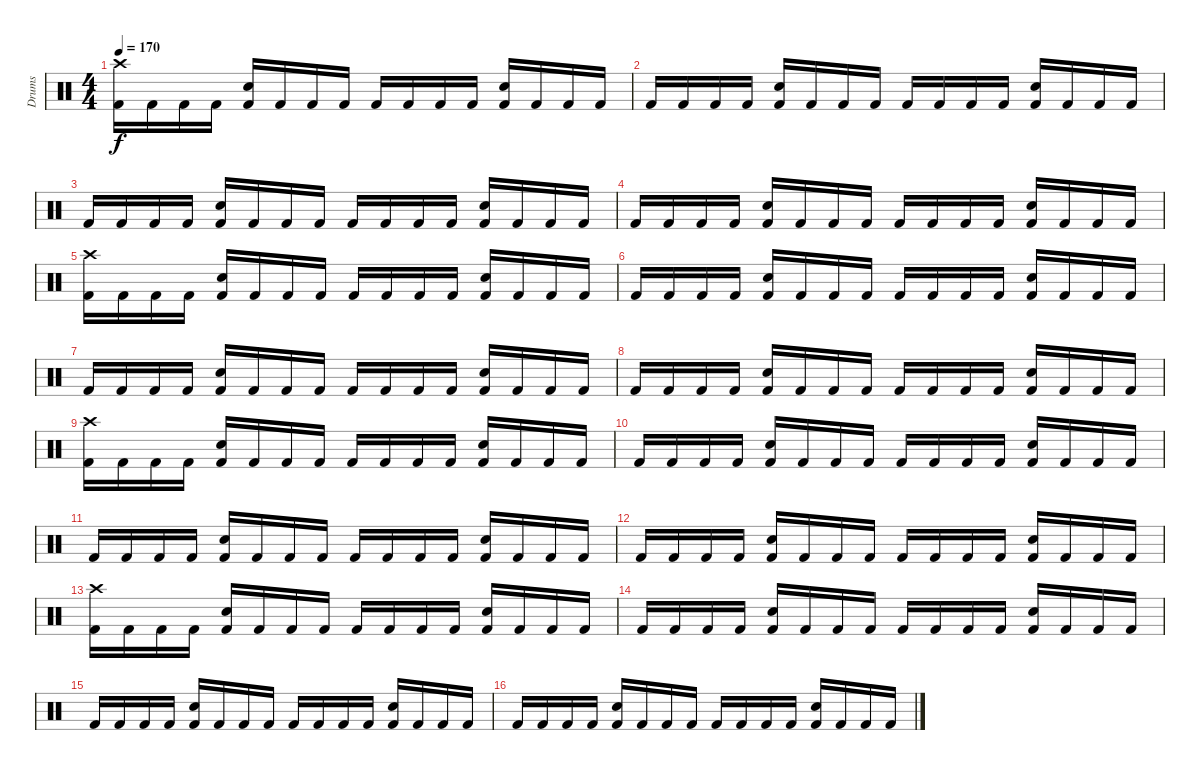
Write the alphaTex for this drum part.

\track ("Drums" "Drums") {instrument percussion}
\staff {score}
\articulation defaults
\ts (4 4)
\tempo 170
\clef neutral
\ks c
("Crash high (hit)" "Kick (hit) 2").16{dy f} "Kick (hit) 2".16 "Kick (hit) 2".16 "Kick (hit) 2".16 ("Snare (hit) 2" "Kick (hit) 2").16 "Kick (hit) 2".16 "Kick (hit) 2".16 "Kick (hit) 2".16 "Kick (hit) 2".16 "Kick (hit) 2".16 "Kick (hit) 2".16 "Kick (hit) 2".16 ("Snare (hit) 2" "Kick (hit) 2").16 "Kick (hit) 2".16 "Kick (hit) 2".16 "Kick (hit) 2".16 |
"Kick (hit) 2".16 "Kick (hit) 2".16 "Kick (hit) 2".16 "Kick (hit) 2".16 ("Snare (hit) 2" "Kick (hit) 2").16 "Kick (hit) 2".16 "Kick (hit) 2".16 "Kick (hit) 2".16 "Kick (hit) 2".16 "Kick (hit) 2".16 "Kick (hit) 2".16 "Kick (hit) 2".16 ("Snare (hit) 2" "Kick (hit) 2").16 "Kick (hit) 2".16 "Kick (hit) 2".16 "Kick (hit) 2".16 |
"Kick (hit) 2".16 "Kick (hit) 2".16 "Kick (hit) 2".16 "Kick (hit) 2".16 ("Snare (hit) 2" "Kick (hit) 2").16 "Kick (hit) 2".16 "Kick (hit) 2".16 "Kick (hit) 2".16 "Kick (hit) 2".16 "Kick (hit) 2".16 "Kick (hit) 2".16 "Kick (hit) 2".16 ("Snare (hit) 2" "Kick (hit) 2").16 "Kick (hit) 2".16 "Kick (hit) 2".16 "Kick (hit) 2".16 |
"Kick (hit) 2".16 "Kick (hit) 2".16 "Kick (hit) 2".16 "Kick (hit) 2".16 ("Snare (hit) 2" "Kick (hit) 2").16 "Kick (hit) 2".16 "Kick (hit) 2".16 "Kick (hit) 2".16 "Kick (hit) 2".16 "Kick (hit) 2".16 "Kick (hit) 2".16 "Kick (hit) 2".16 ("Snare (hit) 2" "Kick (hit) 2").16 "Kick (hit) 2".16 "Kick (hit) 2".16 "Kick (hit) 2".16 |
("Crash high (hit)" "Kick (hit) 2").16 "Kick (hit) 2".16 "Kick (hit) 2".16 "Kick (hit) 2".16 ("Snare (hit) 2" "Kick (hit) 2").16 "Kick (hit) 2".16 "Kick (hit) 2".16 "Kick (hit) 2".16 "Kick (hit) 2".16 "Kick (hit) 2".16 "Kick (hit) 2".16 "Kick (hit) 2".16 ("Snare (hit) 2" "Kick (hit) 2").16 "Kick (hit) 2".16 "Kick (hit) 2".16 "Kick (hit) 2".16 |
"Kick (hit) 2".16 "Kick (hit) 2".16 "Kick (hit) 2".16 "Kick (hit) 2".16 ("Snare (hit) 2" "Kick (hit) 2").16 "Kick (hit) 2".16 "Kick (hit) 2".16 "Kick (hit) 2".16 "Kick (hit) 2".16 "Kick (hit) 2".16 "Kick (hit) 2".16 "Kick (hit) 2".16 ("Snare (hit) 2" "Kick (hit) 2").16 "Kick (hit) 2".16 "Kick (hit) 2".16 "Kick (hit) 2".16 |
"Kick (hit) 2".16 "Kick (hit) 2".16 "Kick (hit) 2".16 "Kick (hit) 2".16 ("Snare (hit) 2" "Kick (hit) 2").16 "Kick (hit) 2".16 "Kick (hit) 2".16 "Kick (hit) 2".16 "Kick (hit) 2".16 "Kick (hit) 2".16 "Kick (hit) 2".16 "Kick (hit) 2".16 ("Snare (hit) 2" "Kick (hit) 2").16 "Kick (hit) 2".16 "Kick (hit) 2".16 "Kick (hit) 2".16 |
"Kick (hit) 2".16 "Kick (hit) 2".16 "Kick (hit) 2".16 "Kick (hit) 2".16 ("Snare (hit) 2" "Kick (hit) 2").16 "Kick (hit) 2".16 "Kick (hit) 2".16 "Kick (hit) 2".16 "Kick (hit) 2".16 "Kick (hit) 2".16 "Kick (hit) 2".16 "Kick (hit) 2".16 ("Snare (hit) 2" "Kick (hit) 2").16 "Kick (hit) 2".16 "Kick (hit) 2".16 "Kick (hit) 2".16 |
("Crash high (hit)" "Kick (hit) 2").16 "Kick (hit) 2".16 "Kick (hit) 2".16 "Kick (hit) 2".16 ("Snare (hit) 2" "Kick (hit) 2").16 "Kick (hit) 2".16 "Kick (hit) 2".16 "Kick (hit) 2".16 "Kick (hit) 2".16 "Kick (hit) 2".16 "Kick (hit) 2".16 "Kick (hit) 2".16 ("Snare (hit) 2" "Kick (hit) 2").16 "Kick (hit) 2".16 "Kick (hit) 2".16 "Kick (hit) 2".16 |
"Kick (hit) 2".16 "Kick (hit) 2".16 "Kick (hit) 2".16 "Kick (hit) 2".16 ("Snare (hit) 2" "Kick (hit) 2").16 "Kick (hit) 2".16 "Kick (hit) 2".16 "Kick (hit) 2".16 "Kick (hit) 2".16 "Kick (hit) 2".16 "Kick (hit) 2".16 "Kick (hit) 2".16 ("Snare (hit) 2" "Kick (hit) 2").16 "Kick (hit) 2".16 "Kick (hit) 2".16 "Kick (hit) 2".16 |
"Kick (hit) 2".16 "Kick (hit) 2".16 "Kick (hit) 2".16 "Kick (hit) 2".16 ("Snare (hit) 2" "Kick (hit) 2").16 "Kick (hit) 2".16 "Kick (hit) 2".16 "Kick (hit) 2".16 "Kick (hit) 2".16 "Kick (hit) 2".16 "Kick (hit) 2".16 "Kick (hit) 2".16 ("Snare (hit) 2" "Kick (hit) 2").16 "Kick (hit) 2".16 "Kick (hit) 2".16 "Kick (hit) 2".16 |
"Kick (hit) 2".16 "Kick (hit) 2".16 "Kick (hit) 2".16 "Kick (hit) 2".16 ("Snare (hit) 2" "Kick (hit) 2").16 "Kick (hit) 2".16 "Kick (hit) 2".16 "Kick (hit) 2".16 "Kick (hit) 2".16 "Kick (hit) 2".16 "Kick (hit) 2".16 "Kick (hit) 2".16 ("Snare (hit) 2" "Kick (hit) 2").16 "Kick (hit) 2".16 "Kick (hit) 2".16 "Kick (hit) 2".16 |
("Crash high (hit)" "Kick (hit) 2").16 "Kick (hit) 2".16 "Kick (hit) 2".16 "Kick (hit) 2".16 ("Snare (hit) 2" "Kick (hit) 2").16 "Kick (hit) 2".16 "Kick (hit) 2".16 "Kick (hit) 2".16 "Kick (hit) 2".16 "Kick (hit) 2".16 "Kick (hit) 2".16 "Kick (hit) 2".16 ("Snare (hit) 2" "Kick (hit) 2").16 "Kick (hit) 2".16 "Kick (hit) 2".16 "Kick (hit) 2".16 |
"Kick (hit) 2".16 "Kick (hit) 2".16 "Kick (hit) 2".16 "Kick (hit) 2".16 ("Snare (hit) 2" "Kick (hit) 2").16 "Kick (hit) 2".16 "Kick (hit) 2".16 "Kick (hit) 2".16 "Kick (hit) 2".16 "Kick (hit) 2".16 "Kick (hit) 2".16 "Kick (hit) 2".16 ("Snare (hit) 2" "Kick (hit) 2").16 "Kick (hit) 2".16 "Kick (hit) 2".16 "Kick (hit) 2".16 |
"Kick (hit) 2".16 "Kick (hit) 2".16 "Kick (hit) 2".16 "Kick (hit) 2".16 ("Snare (hit) 2" "Kick (hit) 2").16 "Kick (hit) 2".16 "Kick (hit) 2".16 "Kick (hit) 2".16 "Kick (hit) 2".16 "Kick (hit) 2".16 "Kick (hit) 2".16 "Kick (hit) 2".16 ("Snare (hit) 2" "Kick (hit) 2").16 "Kick (hit) 2".16 "Kick (hit) 2".16 "Kick (hit) 2".16 |
"Kick (hit) 2".16 "Kick (hit) 2".16 "Kick (hit) 2".16 "Kick (hit) 2".16 ("Snare (hit) 2" "Kick (hit) 2").16 "Kick (hit) 2".16 "Kick (hit) 2".16 "Kick (hit) 2".16 "Kick (hit) 2".16 "Kick (hit) 2".16 "Kick (hit) 2".16 "Kick (hit) 2".16 ("Snare (hit) 2" "Kick (hit) 2").16 "Kick (hit) 2".16 "Kick (hit) 2".16 "Kick (hit) 2".16
